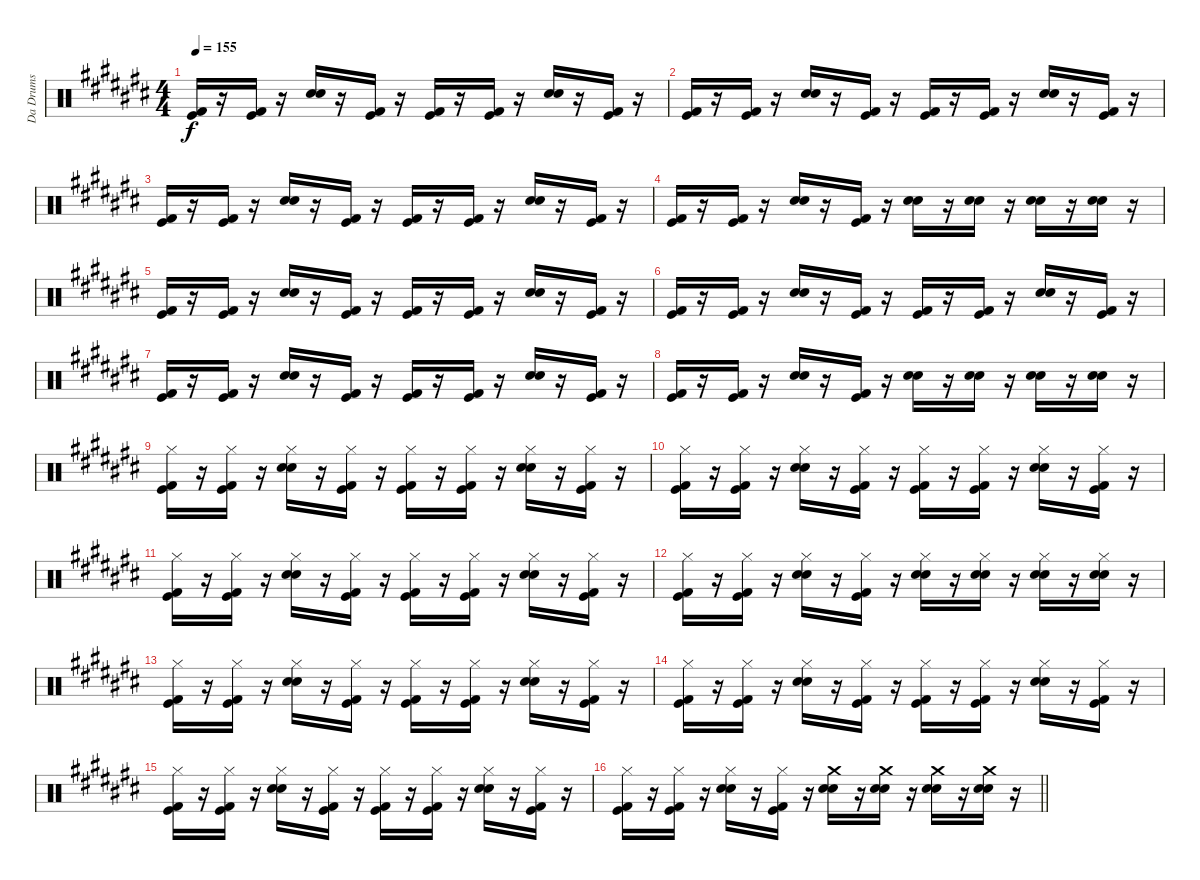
\track ("Da Drums" "Da Drums") {instrument percussion}
\staff {score}
\articulation defaults
\ts (4 4)
\tempo 155
\clef neutral
\ks c#
("Kick (hit)" "Kick (hit) 2").16{dy f} r.16 ("Kick (hit)" "Kick (hit) 2").16 r.16 ("Electric Snare (hit)" "Snare (hit) 2").16 r.16 ("Kick (hit)" "Kick (hit) 2").16 r.16 ("Kick (hit)" "Kick (hit) 2").16 r.16 ("Kick (hit)" "Kick (hit) 2").16 r.16 ("Electric Snare (hit)" "Snare (hit) 2").16 r.16 ("Kick (hit)" "Kick (hit) 2").16 r.16 |
("Kick (hit)" "Kick (hit) 2").16 r.16 ("Kick (hit)" "Kick (hit) 2").16 r.16 ("Electric Snare (hit)" "Snare (hit) 2").16 r.16 ("Kick (hit)" "Kick (hit) 2").16 r.16 ("Kick (hit)" "Kick (hit) 2").16 r.16 ("Kick (hit)" "Kick (hit) 2").16 r.16 ("Electric Snare (hit)" "Snare (hit) 2").16 r.16 ("Kick (hit)" "Kick (hit) 2").16 r.16 |
("Kick (hit)" "Kick (hit) 2").16 r.16 ("Kick (hit)" "Kick (hit) 2").16 r.16 ("Electric Snare (hit)" "Snare (hit) 2").16 r.16 ("Kick (hit)" "Kick (hit) 2").16 r.16 ("Kick (hit)" "Kick (hit) 2").16 r.16 ("Kick (hit)" "Kick (hit) 2").16 r.16 ("Electric Snare (hit)" "Snare (hit) 2").16 r.16 ("Kick (hit)" "Kick (hit) 2").16 r.16 |
("Kick (hit)" "Kick (hit) 2").16 r.16 ("Kick (hit)" "Kick (hit) 2").16 r.16 ("Electric Snare (hit)" "Snare (hit) 2").16 r.16 ("Kick (hit)" "Kick (hit) 2").16 r.16 ("Electric Snare (hit)" "Snare (hit) 2").16 r.16 ("Electric Snare (hit)" "Snare (hit) 2").16 r.16 ("Electric Snare (hit)" "Snare (hit) 2").16 r.16 ("Electric Snare (hit)" "Snare (hit) 2").16 r.16 |
("Kick (hit)" "Kick (hit) 2").16 r.16 ("Kick (hit)" "Kick (hit) 2").16 r.16 ("Electric Snare (hit)" "Snare (hit) 2").16 r.16 ("Kick (hit)" "Kick (hit) 2").16 r.16 ("Kick (hit)" "Kick (hit) 2").16 r.16 ("Kick (hit)" "Kick (hit) 2").16 r.16 ("Electric Snare (hit)" "Snare (hit) 2").16 r.16 ("Kick (hit)" "Kick (hit) 2").16 r.16 |
("Kick (hit)" "Kick (hit) 2").16 r.16 ("Kick (hit)" "Kick (hit) 2").16 r.16 ("Electric Snare (hit)" "Snare (hit) 2").16 r.16 ("Kick (hit)" "Kick (hit) 2").16 r.16 ("Kick (hit)" "Kick (hit) 2").16 r.16 ("Kick (hit)" "Kick (hit) 2").16 r.16 ("Electric Snare (hit)" "Snare (hit) 2").16 r.16 ("Kick (hit)" "Kick (hit) 2").16 r.16 |
("Kick (hit)" "Kick (hit) 2").16 r.16 ("Kick (hit)" "Kick (hit) 2").16 r.16 ("Electric Snare (hit)" "Snare (hit) 2").16 r.16 ("Kick (hit)" "Kick (hit) 2").16 r.16 ("Kick (hit)" "Kick (hit) 2").16 r.16 ("Kick (hit)" "Kick (hit) 2").16 r.16 ("Electric Snare (hit)" "Snare (hit) 2").16 r.16 ("Kick (hit)" "Kick (hit) 2").16 r.16 |
("Kick (hit)" "Kick (hit) 2").16 r.16 ("Kick (hit)" "Kick (hit) 2").16 r.16 ("Electric Snare (hit)" "Snare (hit) 2").16 r.16 ("Kick (hit)" "Kick (hit) 2").16 r.16 ("Electric Snare (hit)" "Snare (hit) 2").16 r.16 ("Electric Snare (hit)" "Snare (hit) 2").16 r.16 ("Electric Snare (hit)" "Snare (hit) 2").16 r.16 ("Electric Snare (hit)" "Snare (hit) 2").16 r.16 |
("Hi-Hat (closed)" "Kick (hit)" "Kick (hit) 2").16 r.16 ("Hi-Hat (closed)" "Kick (hit)" "Kick (hit) 2").16 r.16 ("Hi-Hat (closed)" "Electric Snare (hit)" "Snare (hit) 2").16 r.16 ("Hi-Hat (closed)" "Kick (hit)" "Kick (hit) 2").16 r.16 ("Hi-Hat (closed)" "Kick (hit)" "Kick (hit) 2").16 r.16 ("Hi-Hat (closed)" "Kick (hit)" "Kick (hit) 2").16 r.16 ("Hi-Hat (closed)" "Electric Snare (hit)" "Snare (hit) 2").16 r.16 ("Hi-Hat (closed)" "Kick (hit)" "Kick (hit) 2").16 r.16 |
("Hi-Hat (closed)" "Kick (hit)" "Kick (hit) 2").16 r.16 ("Hi-Hat (closed)" "Kick (hit)" "Kick (hit) 2").16 r.16 ("Hi-Hat (closed)" "Electric Snare (hit)" "Snare (hit) 2").16 r.16 ("Hi-Hat (closed)" "Kick (hit)" "Kick (hit) 2").16 r.16 ("Hi-Hat (closed)" "Kick (hit)" "Kick (hit) 2").16 r.16 ("Hi-Hat (closed)" "Kick (hit)" "Kick (hit) 2").16 r.16 ("Hi-Hat (closed)" "Electric Snare (hit)" "Snare (hit) 2").16 r.16 ("Hi-Hat (closed)" "Kick (hit)" "Kick (hit) 2").16 r.16 |
("Hi-Hat (closed)" "Kick (hit)" "Kick (hit) 2").16 r.16 ("Hi-Hat (closed)" "Kick (hit)" "Kick (hit) 2").16 r.16 ("Hi-Hat (closed)" "Electric Snare (hit)" "Snare (hit) 2").16 r.16 ("Hi-Hat (closed)" "Kick (hit)" "Kick (hit) 2").16 r.16 ("Hi-Hat (closed)" "Kick (hit)" "Kick (hit) 2").16 r.16 ("Hi-Hat (closed)" "Kick (hit)" "Kick (hit) 2").16 r.16 ("Hi-Hat (closed)" "Electric Snare (hit)" "Snare (hit) 2").16 r.16 ("Hi-Hat (closed)" "Kick (hit)" "Kick (hit) 2").16 r.16 |
("Hi-Hat (closed)" "Kick (hit)" "Kick (hit) 2").16 r.16 ("Hi-Hat (closed)" "Kick (hit)" "Kick (hit) 2").16 r.16 ("Hi-Hat (closed)" "Electric Snare (hit)" "Snare (hit) 2").16 r.16 ("Hi-Hat (closed)" "Kick (hit)" "Kick (hit) 2").16 r.16 ("Hi-Hat (closed)" "Electric Snare (hit)" "Snare (hit) 2").16 r.16 ("Hi-Hat (closed)" "Electric Snare (hit)" "Snare (hit) 2").16 r.16 ("Hi-Hat (closed)" "Electric Snare (hit)" "Snare (hit) 2").16 r.16 ("Hi-Hat (closed)" "Electric Snare (hit)" "Snare (hit) 2").16 r.16 |
("Hi-Hat (closed)" "Kick (hit)" "Kick (hit) 2").16 r.16 ("Hi-Hat (closed)" "Kick (hit)" "Kick (hit) 2").16 r.16 ("Hi-Hat (closed)" "Electric Snare (hit)" "Snare (hit) 2").16 r.16 ("Hi-Hat (closed)" "Kick (hit)" "Kick (hit) 2").16 r.16 ("Hi-Hat (closed)" "Kick (hit)" "Kick (hit) 2").16 r.16 ("Hi-Hat (closed)" "Kick (hit)" "Kick (hit) 2").16 r.16 ("Hi-Hat (closed)" "Electric Snare (hit)" "Snare (hit) 2").16 r.16 ("Hi-Hat (closed)" "Kick (hit)" "Kick (hit) 2").16 r.16 |
("Hi-Hat (closed)" "Kick (hit)" "Kick (hit) 2").16 r.16 ("Hi-Hat (closed)" "Kick (hit)" "Kick (hit) 2").16 r.16 ("Hi-Hat (closed)" "Electric Snare (hit)" "Snare (hit) 2").16 r.16 ("Hi-Hat (closed)" "Kick (hit)" "Kick (hit) 2").16 r.16 ("Hi-Hat (closed)" "Kick (hit)" "Kick (hit) 2").16 r.16 ("Hi-Hat (closed)" "Kick (hit)" "Kick (hit) 2").16 r.16 ("Hi-Hat (closed)" "Electric Snare (hit)" "Snare (hit) 2").16 r.16 ("Hi-Hat (closed)" "Kick (hit)" "Kick (hit) 2").16 r.16 |
("Hi-Hat (closed)" "Kick (hit)" "Kick (hit) 2").16 r.16 ("Hi-Hat (closed)" "Kick (hit)" "Kick (hit) 2").16 r.16 ("Hi-Hat (closed)" "Electric Snare (hit)" "Snare (hit) 2").16 r.16 ("Hi-Hat (closed)" "Kick (hit)" "Kick (hit) 2").16 r.16 ("Hi-Hat (closed)" "Kick (hit)" "Kick (hit) 2").16 r.16 ("Hi-Hat (closed)" "Kick (hit)" "Kick (hit) 2").16 r.16 ("Hi-Hat (closed)" "Electric Snare (hit)" "Snare (hit) 2").16 r.16 ("Hi-Hat (closed)" "Kick (hit)" "Kick (hit) 2").16 r.16 |
\barLineRight lightlight
("Hi-Hat (closed)" "Kick (hit)" "Kick (hit) 2").16 r.16 ("Hi-Hat (closed)" "Kick (hit)" "Kick (hit) 2").16 r.16 ("Hi-Hat (closed)" "Electric Snare (hit)" "Snare (hit) 2").16 r.16 ("Hi-Hat (closed)" "Kick (hit)" "Kick (hit) 2").16 r.16 ("Crash medium (hit)" "Electric Snare (hit)" "Snare (hit) 2").16 r.16 ("Crash medium (hit)" "Electric Snare (hit)" "Snare (hit) 2").16 r.16 ("Crash medium (hit)" "Electric Snare (hit)" "Snare (hit) 2").16 r.16 ("Crash medium (hit)" "Electric Snare (hit)" "Snare (hit) 2").16 r.16
